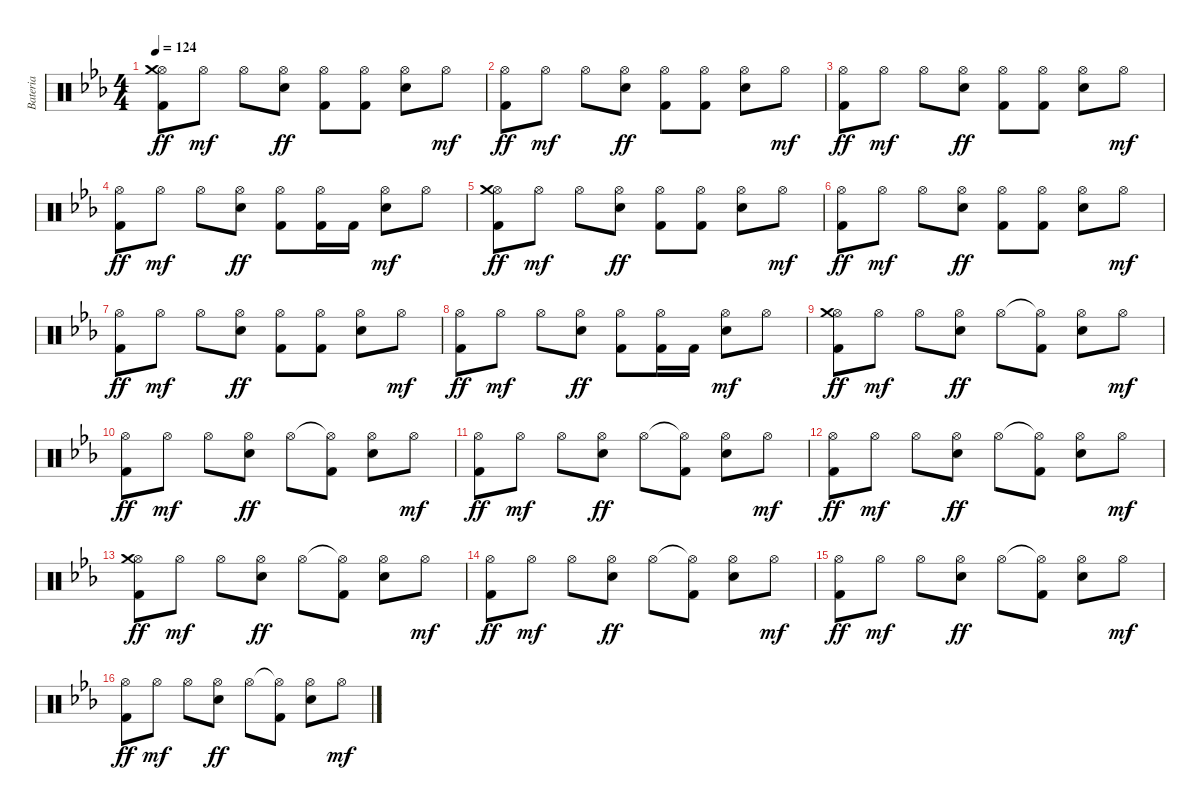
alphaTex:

\track ("Bateria" "Bateria") {instrument percussion}
\staff {score}
\articulation defaults
\ts (4 4)
\tempo 124
\clef neutral
\ks eb
("Hi-Hat (open)" "Kick (hit) 2" "Crash medium (hit)").8{dy ff} "Hi-Hat (open)".8{dy mf} "Hi-Hat (open)".8 ("Hi-Hat (open)" "Electric Snare (hit)").8{dy ff} ("Hi-Hat (open)" "Kick (hit) 2").8 ("Hi-Hat (open)" "Kick (hit) 2").8 ("Hi-Hat (open)" "Electric Snare (hit)").8 "Hi-Hat (open)".8{dy mf} |
("Hi-Hat (open)" "Kick (hit) 2").8{dy ff} "Hi-Hat (open)".8{dy mf} "Hi-Hat (open)".8 ("Hi-Hat (open)" "Electric Snare (hit)").8{dy ff} ("Hi-Hat (open)" "Kick (hit) 2").8 ("Hi-Hat (open)" "Kick (hit) 2").8 ("Hi-Hat (open)" "Electric Snare (hit)").8 "Hi-Hat (open)".8{dy mf} |
("Hi-Hat (open)" "Kick (hit) 2").8{dy ff} "Hi-Hat (open)".8{dy mf} "Hi-Hat (open)".8 ("Hi-Hat (open)" "Electric Snare (hit)").8{dy ff} ("Hi-Hat (open)" "Kick (hit) 2").8 ("Hi-Hat (open)" "Kick (hit) 2").8 ("Hi-Hat (open)" "Electric Snare (hit)").8 "Hi-Hat (open)".8{dy mf} |
("Hi-Hat (open)" "Kick (hit) 2").8{dy ff} "Hi-Hat (open)".8{dy mf} "Hi-Hat (open)".8 ("Hi-Hat (open)" "Electric Snare (hit)").8{dy ff} ("Hi-Hat (open)" "Kick (hit) 2").8 ("Hi-Hat (open)" "Kick (hit) 2").16 "Kick (hit) 2".16 ("Electric Snare (hit)" "Hi-Hat (open)").8{dy mf} "Hi-Hat (open)".8 |
("Hi-Hat (open)" "Kick (hit) 2" "Crash medium (hit)").8{dy ff} "Hi-Hat (open)".8{dy mf} "Hi-Hat (open)".8 ("Hi-Hat (open)" "Electric Snare (hit)").8{dy ff} ("Hi-Hat (open)" "Kick (hit) 2").8 ("Hi-Hat (open)" "Kick (hit) 2").8 ("Hi-Hat (open)" "Electric Snare (hit)").8 "Hi-Hat (open)".8{dy mf} |
("Hi-Hat (open)" "Kick (hit) 2").8{dy ff} "Hi-Hat (open)".8{dy mf} "Hi-Hat (open)".8 ("Hi-Hat (open)" "Electric Snare (hit)").8{dy ff} ("Hi-Hat (open)" "Kick (hit) 2").8 ("Hi-Hat (open)" "Kick (hit) 2").8 ("Hi-Hat (open)" "Electric Snare (hit)").8 "Hi-Hat (open)".8{dy mf} |
("Hi-Hat (open)" "Kick (hit) 2").8{dy ff} "Hi-Hat (open)".8{dy mf} "Hi-Hat (open)".8 ("Hi-Hat (open)" "Electric Snare (hit)").8{dy ff} ("Hi-Hat (open)" "Kick (hit) 2").8 ("Hi-Hat (open)" "Kick (hit) 2").8 ("Hi-Hat (open)" "Electric Snare (hit)").8 "Hi-Hat (open)".8{dy mf} |
("Hi-Hat (open)" "Kick (hit) 2").8{dy ff} "Hi-Hat (open)".8{dy mf} "Hi-Hat (open)".8 ("Hi-Hat (open)" "Electric Snare (hit)").8{dy ff} ("Hi-Hat (open)" "Kick (hit) 2").8 ("Hi-Hat (open)" "Kick (hit) 2").16 "Kick (hit) 2".16 ("Electric Snare (hit)" "Hi-Hat (open)").8{dy mf} "Hi-Hat (open)".8 |
("Hi-Hat (open)" "Kick (hit) 2" "Crash medium (hit)").8{dy ff} "Hi-Hat (open)".8{dy mf} "Hi-Hat (open)".8 ("Hi-Hat (open)" "Electric Snare (hit)").8{dy ff} "Hi-Hat (open)".8 ("Hi-Hat (open)"{t} "Kick (hit) 2").8 ("Hi-Hat (open)" "Electric Snare (hit)").8 "Hi-Hat (open)".8{dy mf} |
("Hi-Hat (open)" "Kick (hit) 2").8{dy ff} "Hi-Hat (open)".8{dy mf} "Hi-Hat (open)".8 ("Hi-Hat (open)" "Electric Snare (hit)").8{dy ff} "Hi-Hat (open)".8 ("Hi-Hat (open)"{t} "Kick (hit) 2").8 ("Hi-Hat (open)" "Electric Snare (hit)").8 "Hi-Hat (open)".8{dy mf} |
("Hi-Hat (open)" "Kick (hit) 2").8{dy ff} "Hi-Hat (open)".8{dy mf} "Hi-Hat (open)".8 ("Hi-Hat (open)" "Electric Snare (hit)").8{dy ff} "Hi-Hat (open)".8 ("Hi-Hat (open)"{t} "Kick (hit) 2").8 ("Hi-Hat (open)" "Electric Snare (hit)").8 "Hi-Hat (open)".8{dy mf} |
("Hi-Hat (open)" "Kick (hit) 2").8{dy ff} "Hi-Hat (open)".8{dy mf} "Hi-Hat (open)".8 ("Hi-Hat (open)" "Electric Snare (hit)").8{dy ff} "Hi-Hat (open)".8 ("Hi-Hat (open)"{t} "Kick (hit) 2").8 ("Hi-Hat (open)" "Electric Snare (hit)").8 "Hi-Hat (open)".8{dy mf} |
("Hi-Hat (open)" "Kick (hit) 2" "Crash medium (hit)").8{dy ff} "Hi-Hat (open)".8{dy mf} "Hi-Hat (open)".8 ("Hi-Hat (open)" "Electric Snare (hit)").8{dy ff} "Hi-Hat (open)".8 ("Hi-Hat (open)"{t} "Kick (hit) 2").8 ("Hi-Hat (open)" "Electric Snare (hit)").8 "Hi-Hat (open)".8{dy mf} |
("Hi-Hat (open)" "Kick (hit) 2").8{dy ff} "Hi-Hat (open)".8{dy mf} "Hi-Hat (open)".8 ("Hi-Hat (open)" "Electric Snare (hit)").8{dy ff} "Hi-Hat (open)".8 ("Hi-Hat (open)"{t} "Kick (hit) 2").8 ("Hi-Hat (open)" "Electric Snare (hit)").8 "Hi-Hat (open)".8{dy mf} |
("Hi-Hat (open)" "Kick (hit) 2").8{dy ff} "Hi-Hat (open)".8{dy mf} "Hi-Hat (open)".8 ("Hi-Hat (open)" "Electric Snare (hit)").8{dy ff} "Hi-Hat (open)".8 ("Hi-Hat (open)"{t} "Kick (hit) 2").8 ("Hi-Hat (open)" "Electric Snare (hit)").8 "Hi-Hat (open)".8{dy mf} |
("Hi-Hat (open)" "Kick (hit) 2").8{dy ff} "Hi-Hat (open)".8{dy mf} "Hi-Hat (open)".8 ("Hi-Hat (open)" "Electric Snare (hit)").8{dy ff} "Hi-Hat (open)".8 ("Hi-Hat (open)"{t} "Kick (hit) 2").8 ("Hi-Hat (open)" "Electric Snare (hit)").8 "Hi-Hat (open)".8{dy mf}
